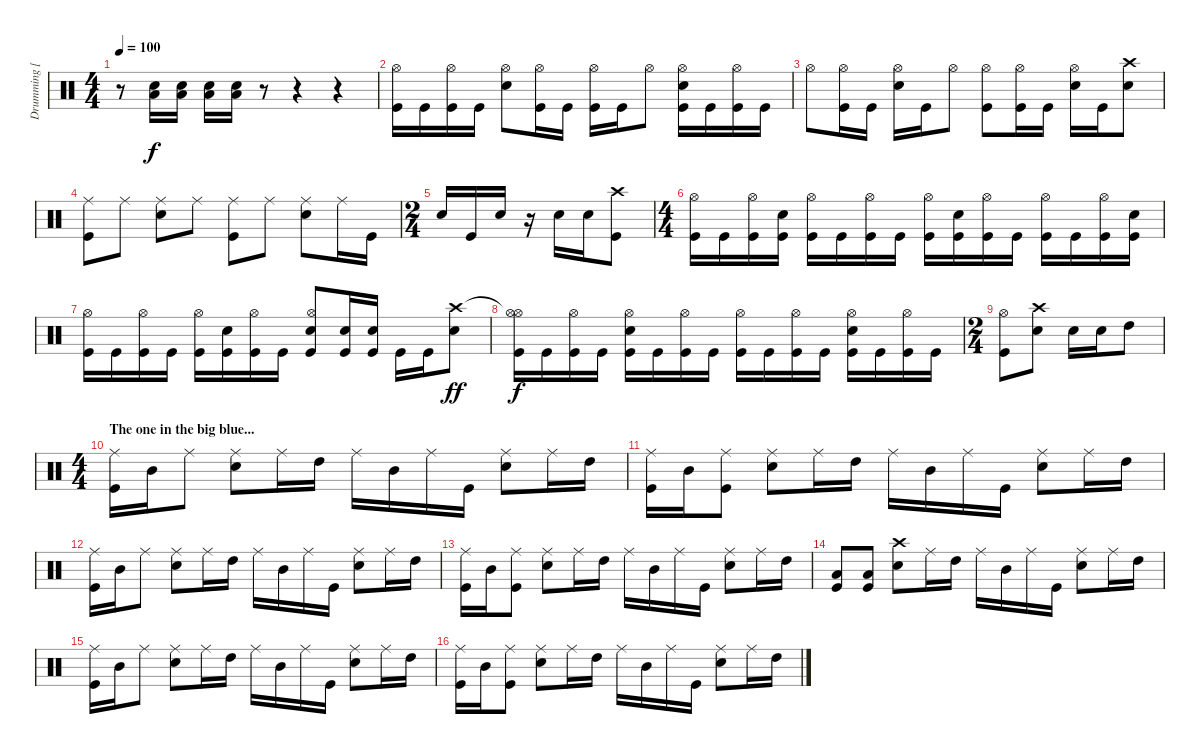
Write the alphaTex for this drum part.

\track ("Drumming [Jukka]" "Drumming [") {instrument percussion}
\staff {score}
\articulation defaults
\ts (4 4)
\tempo 100
\clef neutral
\ks c
r.8{dy f} ("Low Floor Tom (hit)" "Electric Snare (hit)").16 ("Low Floor Tom (hit)" "Electric Snare (hit)").16 ("Low Floor Tom (hit)" "Electric Snare (hit)").16 ("Low Floor Tom (hit)" "Electric Snare (hit)").16 r.8 r.4 r.4 |
("Hi-Hat (open)" "Kick (hit)").16 "Kick (hit)".16 ("Hi-Hat (open)" "Kick (hit)").16 "Kick (hit)".16 ("Hi-Hat (open)" "Electric Snare (hit)").8 ("Hi-Hat (open)" "Kick (hit)").16 "Kick (hit)".16 ("Hi-Hat (open)" "Kick (hit)").16 "Kick (hit)".16 "Hi-Hat (open)".8 ("Hi-Hat (open)" "Electric Snare (hit)" "Kick (hit)").16 "Kick (hit)".16 ("Hi-Hat (open)" "Kick (hit)").16 "Kick (hit)".16 |
"Hi-Hat (open)".8 ("Hi-Hat (open)" "Kick (hit)").16 "Kick (hit)".16 ("Hi-Hat (open)" "Electric Snare (hit)").16 "Kick (hit)".16 "Hi-Hat (open)".8 ("Hi-Hat (open)" "Kick (hit)").8 ("Hi-Hat (open)" "Kick (hit)").16 "Kick (hit)".16 ("Hi-Hat (open)" "Electric Snare (hit)").16 "Kick (hit)".16 ("Crash high (hit)" "Electric Snare (hit)").8 |
("Ride (middle)" "Kick (hit)").8 "Ride (middle)".8 ("Ride (middle)" "Electric Snare (hit)").8 "Ride (middle)".8 ("Ride (middle)" "Kick (hit)").8 "Ride (middle)".8 ("Ride (middle)" "Electric Snare (hit)").8 "Ride (middle)".16 "Kick (hit)".16 |
\ts (2 4)
"Electric Snare (hit)".16 "Kick (hit)".16 "Electric Snare (hit)".16 r.16 "Electric Snare (hit)".16 "Electric Snare (hit)".16 ("Crash high (hit)" "Kick (hit)").8 |
\ts (4 4)
("Hi-Hat (open)" "Kick (hit)").16 "Kick (hit)".16 ("Hi-Hat (open)" "Kick (hit)").16 ("Electric Snare (hit)" "Kick (hit)").16 ("Hi-Hat (open)" "Kick (hit)").16 "Kick (hit)".16 ("Hi-Hat (open)" "Kick (hit)").16 "Kick (hit)".16 ("Hi-Hat (open)" "Kick (hit)").16 ("Electric Snare (hit)" "Kick (hit)").16 ("Hi-Hat (open)" "Kick (hit)").16 "Kick (hit)".16 ("Hi-Hat (open)" "Kick (hit)").16 "Kick (hit)".16 ("Hi-Hat (open)" "Kick (hit)").16 ("Electric Snare (hit)" "Kick (hit)").16 |
("Hi-Hat (open)" "Kick (hit)").16 "Kick (hit)".16 ("Hi-Hat (open)" "Kick (hit)").16 "Kick (hit)".16 ("Hi-Hat (open)" "Kick (hit)").16 ("Electric Snare (hit)" "Kick (hit)").16 ("Hi-Hat (open)" "Kick (hit)").16 "Kick (hit)".16 ("Hi-Hat (open)" "Electric Snare (hit)" "Kick (hit)").8 ("Electric Snare (hit)" "Kick (hit)").16 ("Electric Snare (hit)" "Kick (hit)").16 "Kick (hit)".16 "Kick (hit)".16 ("Crash high (hit)" "Electric Snare (hit)").8{dy ff} |
("Hi-Hat (open)"{t} "Hi-Hat (open)" "Kick (hit)").16{dy f} "Kick (hit)".16 ("Hi-Hat (open)" "Kick (hit)").16 "Kick (hit)".16 ("Hi-Hat (open)" "Electric Snare (hit)" "Kick (hit)").16 "Kick (hit)".16 ("Hi-Hat (open)" "Kick (hit)").16 "Kick (hit)".16 ("Hi-Hat (open)" "Kick (hit)").16 "Kick (hit)".16 ("Hi-Hat (open)" "Kick (hit)").16 "Kick (hit)".16 ("Hi-Hat (open)" "Electric Snare (hit)" "Kick (hit)").16 "Kick (hit)".16 ("Hi-Hat (open)" "Kick (hit)").16 "Kick (hit)".16 |
\ts (2 4)
("Hi-Hat (open)" "Kick (hit)").8 ("Crash high (hit)" "Electric Snare (hit)").8 "Electric Snare (hit)".16 "Electric Snare (hit)".16 "High Tom (hit)".8 |
\ts (4 4)
\section ("" "The one in the big blue...")
("Ride (middle)" "Kick (hit)").16 "Mid Tom (hit)".16 "Ride (middle)".8 ("Ride (middle)" "Electric Snare (hit)").8 "Ride (middle)".16 "High Tom (hit)".16 "Ride (middle)".16 "Mid Tom (hit)".16 "Ride (middle)".16 "Kick (hit)".16 ("Ride (middle)" "Electric Snare (hit)").8 "Ride (middle)".16 "High Tom (hit)".16 |
("Ride (middle)" "Kick (hit)").16 "Mid Tom (hit)".16 ("Ride (middle)" "Kick (hit)").8 ("Ride (middle)" "Electric Snare (hit)").8 "Ride (middle)".16 "High Tom (hit)".16 "Ride (middle)".16 "Mid Tom (hit)".16 "Ride (middle)".16 "Kick (hit)".16 ("Ride (middle)" "Electric Snare (hit)").8 "Ride (middle)".16 "High Tom (hit)".16 |
("Ride (middle)" "Kick (hit)").16 "Mid Tom (hit)".16 "Ride (middle)".8 ("Ride (middle)" "Electric Snare (hit)").8 "Ride (middle)".16 "High Tom (hit)".16 "Ride (middle)".16 "Mid Tom (hit)".16 "Ride (middle)".16 "Kick (hit)".16 ("Ride (middle)" "Electric Snare (hit)").8 "Ride (middle)".16 "High Tom (hit)".16 |
("Ride (middle)" "Kick (hit)").16 "Mid Tom (hit)".16 ("Ride (middle)" "Kick (hit)").8 ("Ride (middle)" "Electric Snare (hit)").8 "Ride (middle)".16 "High Tom (hit)".16 "Ride (middle)".16 "Mid Tom (hit)".16 "Ride (middle)".16 "Kick (hit)".16 ("Ride (middle)" "Electric Snare (hit)").8 "Ride (middle)".16 "High Tom (hit)".16 |
("Low Floor Tom (hit)" "Kick (hit)").8 ("Low Floor Tom (hit)" "Kick (hit)").8 ("Crash high (hit)" "Electric Snare (hit)").8 "Ride (middle)".16 "High Tom (hit)".16 "Ride (middle)".16 "Mid Tom (hit)".16 "Ride (middle)".16 "Kick (hit)".16 ("Ride (middle)" "Electric Snare (hit)").8 "Ride (middle)".16 "High Tom (hit)".16 |
("Ride (middle)" "Kick (hit)").16 "Mid Tom (hit)".16 "Ride (middle)".8 ("Ride (middle)" "Electric Snare (hit)").8 "Ride (middle)".16 "High Tom (hit)".16 "Ride (middle)".16 "Mid Tom (hit)".16 "Ride (middle)".16 "Kick (hit)".16 ("Ride (middle)" "Electric Snare (hit)").8 "Ride (middle)".16 "High Tom (hit)".16 |
("Ride (middle)" "Kick (hit)").16 "Mid Tom (hit)".16 ("Ride (middle)" "Kick (hit)").8 ("Ride (middle)" "Electric Snare (hit)").8 "Ride (middle)".16 "High Tom (hit)".16 "Ride (middle)".16 "Mid Tom (hit)".16 "Ride (middle)".16 "Kick (hit)".16 ("Ride (middle)" "Electric Snare (hit)").8 "Ride (middle)".16 "High Tom (hit)".16
